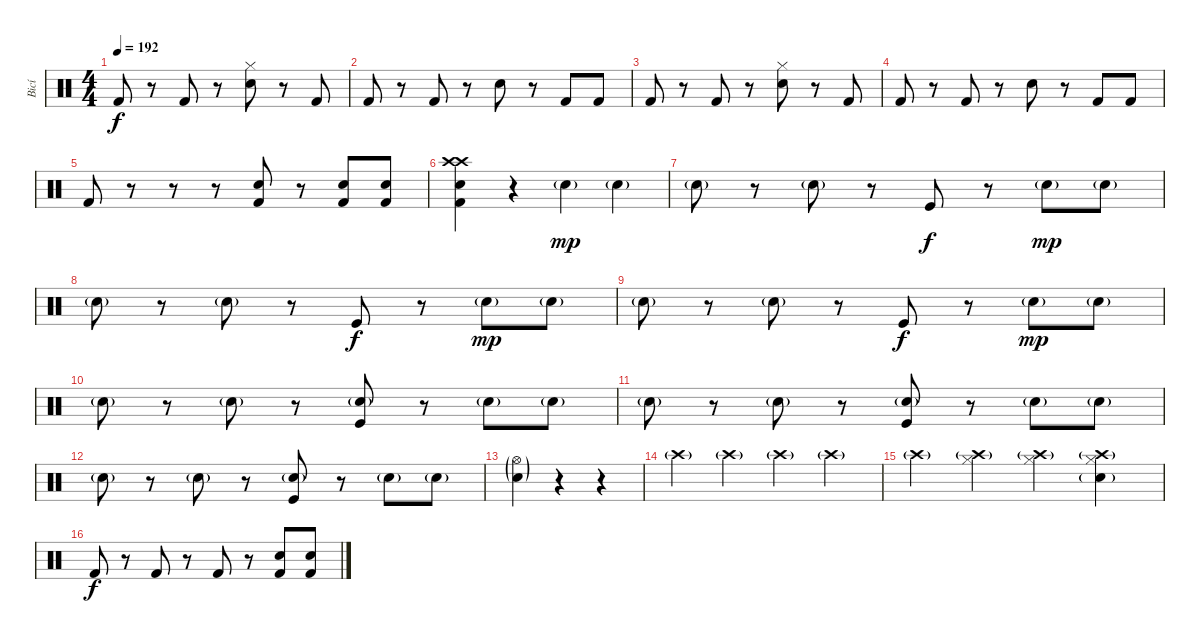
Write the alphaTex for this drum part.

\track ("Bicí" "Bicí") {instrument percussion}
\staff {score}
\articulation defaults
\ts (4 4)
\tempo 192
\clef neutral
\ks c "Kick (hit) 2".8{dy f}
r.8 "Kick (hit) 2".8 r.8 ("Hi-Hat (closed)" "Electric Snare (hit)").8 r.8 "Kick (hit) 2".8 |
"Kick (hit) 2".8 r.8 "Kick (hit) 2".8 r.8 "Electric Snare (hit)".8 r.8 "Kick (hit) 2".8 "Kick (hit) 2".8 |
"Kick (hit) 2".8 r.8 "Kick (hit) 2".8 r.8 ("Hi-Hat (closed)" "Electric Snare (hit)").8 r.8 "Kick (hit) 2".8 |
"Kick (hit) 2".8 r.8 "Kick (hit) 2".8 r.8 "Electric Snare (hit)".8 r.8 "Kick (hit) 2".8 "Kick (hit) 2".8 |
"Kick (hit) 2".8 r.8 r.8 r.8 ("Electric Snare (hit)" "Kick (hit) 2").8 r.8 ("Electric Snare (hit)" "Kick (hit) 2").8 ("Electric Snare (hit)" "Kick (hit) 2").8 |
("Crash high (hit)" "Crash high (hit)" "Electric Snare (hit)" "Kick (hit) 2").4 r.4 "Hand Clap (hit)"{g}.4{dy mp} "Hand Clap (hit)"{g}.4 |
"Hand Clap (hit)"{g}.8 r.8 "Hand Clap (hit)"{g}.8 r.8 "Kick (hit)".8{dy f} r.8 "Hand Clap (hit)"{g}.8{dy mp} "Hand Clap (hit)"{g}.8 |
"Hand Clap (hit)"{g}.8 r.8 "Hand Clap (hit)"{g}.8 r.8 "Kick (hit)".8{dy f} r.8 "Hand Clap (hit)"{g}.8{dy mp} "Hand Clap (hit)"{g}.8 |
"Hand Clap (hit)"{g}.8 r.8 "Hand Clap (hit)"{g}.8 r.8 "Kick (hit)".8{dy f} r.8 "Hand Clap (hit)"{g}.8{dy mp} "Hand Clap (hit)"{g}.8 |
"Hand Clap (hit)"{g}.8 r.8 "Hand Clap (hit)"{g}.8 r.8 ("Kick (hit)" "Hand Clap (hit)"{g}).8 r.8 "Hand Clap (hit)"{g}.8 "Hand Clap (hit)"{g}.8 |
"Hand Clap (hit)"{g}.8 r.8 "Hand Clap (hit)"{g}.8 r.8 ("Kick (hit)" "Hand Clap (hit)"{g}).8 r.8 "Hand Clap (hit)"{g}.8 "Hand Clap (hit)"{g}.8 |
"Hand Clap (hit)"{g}.8 r.8 "Hand Clap (hit)"{g}.8 r.8 ("Kick (hit)" "Hand Clap (hit)"{g}).8 r.8 "Hand Clap (hit)"{g}.8 "Hand Clap (hit)"{g}.8 |
("Hi-Hat (open)"{g} "Electric Snare (hit)"{g}).4 r.4 r.4 |
"Crash high (hit)"{g}.4 "Crash high (hit)"{g}.4 "Crash high (hit)"{g}.4 "Crash high (hit)"{g}.4 |
"Crash high (hit)"{g}.4 ("Crash high (hit)"{g} "Hi-Hat (closed)").4 ("Crash high (hit)"{g} "Hi-Hat (closed)").4 ("Crash high (hit)"{g} "Hi-Hat (closed)" "Electric Snare (hit)"{g}).4 |
"Kick (hit) 2".8{dy f} r.8 "Kick (hit) 2".8 r.8 "Kick (hit) 2".8 r.8 ("Electric Snare (hit)" "Kick (hit) 2").8 ("Electric Snare (hit)" "Kick (hit) 2").8
